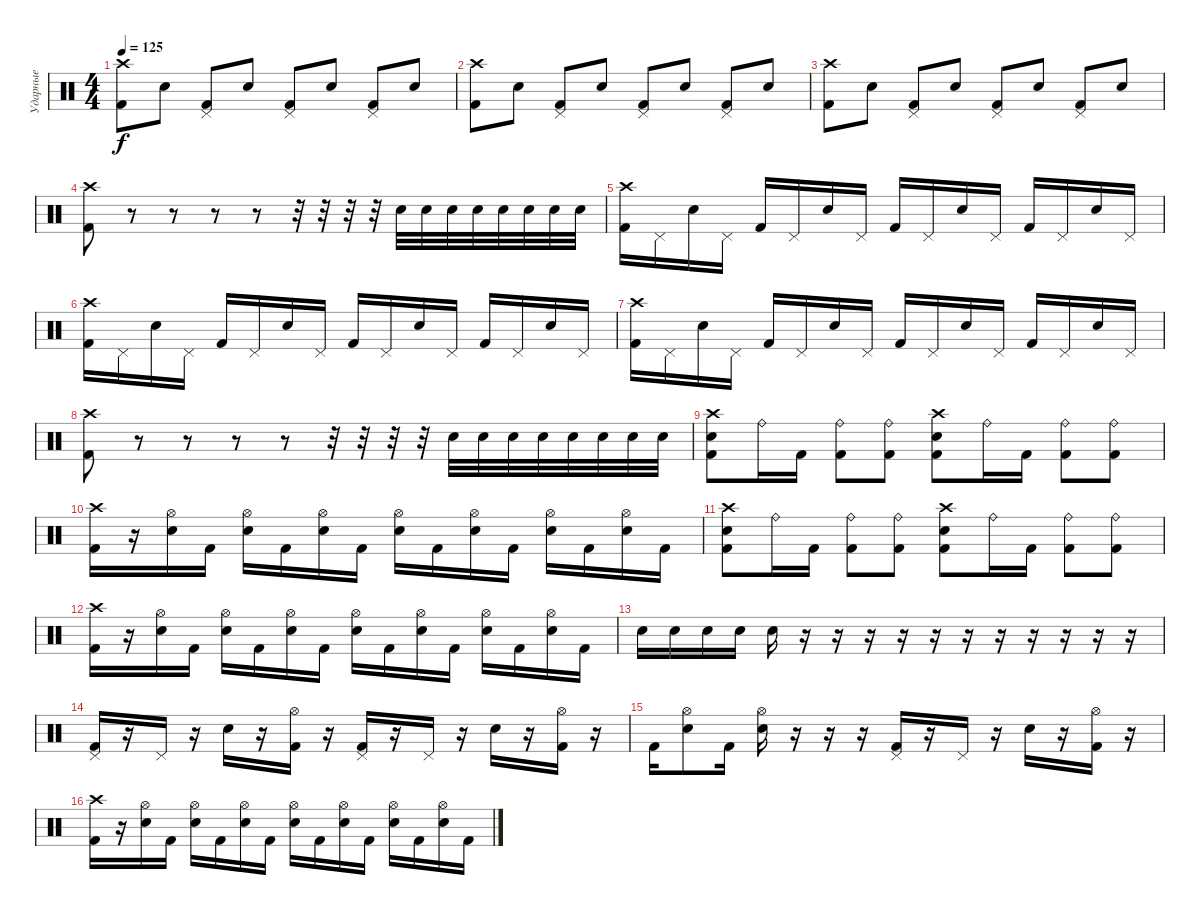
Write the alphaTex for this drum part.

\track ("Ударные" "Ударные") {instrument percussion}
\staff {score}
\articulation defaults
\ts (4 4)
\tempo 125
\clef neutral
\ks c
("Crash high (hit)" "Kick (hit) 2").8{dy f} "Electric Snare (hit)".8 ("Pedal Hi-Hat (hit)" "Kick (hit) 2").8 "Electric Snare (hit)".8 ("Pedal Hi-Hat (hit)" "Kick (hit) 2").8 "Electric Snare (hit)".8 ("Pedal Hi-Hat (hit)" "Kick (hit) 2").8 "Electric Snare (hit)".8 |
("Crash high (hit)" "Kick (hit) 2").8 "Electric Snare (hit)".8 ("Pedal Hi-Hat (hit)" "Kick (hit) 2").8 "Electric Snare (hit)".8 ("Pedal Hi-Hat (hit)" "Kick (hit) 2").8 "Electric Snare (hit)".8 ("Pedal Hi-Hat (hit)" "Kick (hit) 2").8 "Electric Snare (hit)".8 |
("Crash high (hit)" "Kick (hit) 2").8 "Electric Snare (hit)".8 ("Pedal Hi-Hat (hit)" "Kick (hit) 2").8 "Electric Snare (hit)".8 ("Pedal Hi-Hat (hit)" "Kick (hit) 2").8 "Electric Snare (hit)".8 ("Pedal Hi-Hat (hit)" "Kick (hit) 2").8 "Electric Snare (hit)".8 |
("Crash high (hit)" "Kick (hit) 2").8 r.8 r.8 r.8 r.8 r.32 r.32 r.32 r.32 "Electric Snare (hit)".32 "Electric Snare (hit)".32 "Electric Snare (hit)".32 "Electric Snare (hit)".32 "Electric Snare (hit)".32 "Electric Snare (hit)".32 "Electric Snare (hit)".32 "Electric Snare (hit)".32 |
("Crash high (hit)" "Kick (hit) 2").16 "Pedal Hi-Hat (hit)".16 "Electric Snare (hit)".16 "Pedal Hi-Hat (hit)".16 "Kick (hit) 2".16 "Pedal Hi-Hat (hit)".16 "Electric Snare (hit)".16 "Pedal Hi-Hat (hit)".16 "Kick (hit) 2".16 "Pedal Hi-Hat (hit)".16 "Electric Snare (hit)".16 "Pedal Hi-Hat (hit)".16 "Kick (hit) 2".16 "Pedal Hi-Hat (hit)".16 "Electric Snare (hit)".16 "Pedal Hi-Hat (hit)".16 |
("Crash high (hit)" "Kick (hit) 2").16 "Pedal Hi-Hat (hit)".16 "Electric Snare (hit)".16 "Pedal Hi-Hat (hit)".16 "Kick (hit) 2".16 "Pedal Hi-Hat (hit)".16 "Electric Snare (hit)".16 "Pedal Hi-Hat (hit)".16 "Kick (hit) 2".16 "Pedal Hi-Hat (hit)".16 "Electric Snare (hit)".16 "Pedal Hi-Hat (hit)".16 "Kick (hit) 2".16 "Pedal Hi-Hat (hit)".16 "Electric Snare (hit)".16 "Pedal Hi-Hat (hit)".16 |
("Crash high (hit)" "Kick (hit) 2").16 "Pedal Hi-Hat (hit)".16 "Electric Snare (hit)".16 "Pedal Hi-Hat (hit)".16 "Kick (hit) 2".16 "Pedal Hi-Hat (hit)".16 "Electric Snare (hit)".16 "Pedal Hi-Hat (hit)".16 "Kick (hit) 2".16 "Pedal Hi-Hat (hit)".16 "Electric Snare (hit)".16 "Pedal Hi-Hat (hit)".16 "Kick (hit) 2".16 "Pedal Hi-Hat (hit)".16 "Electric Snare (hit)".16 "Pedal Hi-Hat (hit)".16 |
("Crash high (hit)" "Kick (hit) 2").8 r.8 r.8 r.8 r.8 r.32 r.32 r.32 r.32 "Electric Snare (hit)".32 "Electric Snare (hit)".32 "Electric Snare (hit)".32 "Electric Snare (hit)".32 "Electric Snare (hit)".32 "Electric Snare (hit)".32 "Electric Snare (hit)".32 "Electric Snare (hit)".32 |
("Crash high (hit)" "Electric Snare (hit)" "Kick (hit) 2").8 "Ride (bell)".16 "Kick (hit) 2".16 ("Ride (bell)" "Kick (hit) 2").8 ("Ride (bell)" "Kick (hit) 2").8 ("Crash high (hit)" "Electric Snare (hit)" "Kick (hit) 2").8 "Ride (bell)".16 "Kick (hit) 2".16 ("Ride (bell)" "Kick (hit) 2").8 ("Ride (bell)" "Kick (hit) 2").8 |
("Crash high (hit)" "Kick (hit) 2").16 r.16 ("Hi-Hat (open)" "Electric Snare (hit)").16 "Kick (hit) 2".16 ("Hi-Hat (open)" "Electric Snare (hit)").16 "Kick (hit) 2".16 ("Hi-Hat (open)" "Electric Snare (hit)").16 "Kick (hit) 2".16 ("Hi-Hat (open)" "Electric Snare (hit)").16 "Kick (hit) 2".16 ("Hi-Hat (open)" "Electric Snare (hit)").16 "Kick (hit) 2".16 ("Hi-Hat (open)" "Electric Snare (hit)").16 "Kick (hit) 2".16 ("Hi-Hat (open)" "Electric Snare (hit)").16 "Kick (hit) 2".16 |
("Crash high (hit)" "Electric Snare (hit)" "Kick (hit) 2").8 "Ride (bell)".16 "Kick (hit) 2".16 ("Ride (bell)" "Kick (hit) 2").8 ("Ride (bell)" "Kick (hit) 2").8 ("Crash high (hit)" "Electric Snare (hit)" "Kick (hit) 2").8 "Ride (bell)".16 "Kick (hit) 2".16 ("Ride (bell)" "Kick (hit) 2").8 ("Ride (bell)" "Kick (hit) 2").8 |
("Crash high (hit)" "Kick (hit) 2").16 r.16 ("Hi-Hat (open)" "Electric Snare (hit)").16 "Kick (hit) 2".16 ("Hi-Hat (open)" "Electric Snare (hit)").16 "Kick (hit) 2".16 ("Hi-Hat (open)" "Electric Snare (hit)").16 "Kick (hit) 2".16 ("Hi-Hat (open)" "Electric Snare (hit)").16 "Kick (hit) 2".16 ("Hi-Hat (open)" "Electric Snare (hit)").16 "Kick (hit) 2".16 ("Hi-Hat (open)" "Electric Snare (hit)").16 "Kick (hit) 2".16 ("Hi-Hat (open)" "Electric Snare (hit)").16 "Kick (hit) 2".16 |
"Electric Snare (hit)".16 "Electric Snare (hit)".16 "Electric Snare (hit)".16 "Electric Snare (hit)".16 "Electric Snare (hit)".16 r.16 r.16 r.16 r.16 r.16 r.16 r.16 r.16 r.16 r.16 r.16 |
("Pedal Hi-Hat (hit)" "Kick (hit) 2").16 r.16 "Pedal Hi-Hat (hit)".16 r.16 "Electric Snare (hit)".16 r.16 ("Hi-Hat (open)" "Kick (hit) 2").16 r.16 ("Pedal Hi-Hat (hit)" "Kick (hit) 2").16 r.16 "Pedal Hi-Hat (hit)".16 r.16 "Electric Snare (hit)".16 r.16 ("Hi-Hat (open)" "Kick (hit) 2").16 r.16 |
"Kick (hit) 2".16 ("Hi-Hat (open)" "Electric Snare (hit)").8 "Kick (hit) 2".16 ("Hi-Hat (open)" "Electric Snare (hit)").16 r.16 r.16 r.16 ("Pedal Hi-Hat (hit)" "Kick (hit) 2").16 r.16 "Pedal Hi-Hat (hit)".16 r.16 "Electric Snare (hit)".16 r.16 ("Hi-Hat (open)" "Kick (hit) 2").16 r.16 |
("Crash high (hit)" "Kick (hit) 2").16 r.16 ("Hi-Hat (open)" "Electric Snare (hit)").16 "Kick (hit) 2".16 ("Hi-Hat (open)" "Electric Snare (hit)").16 "Kick (hit) 2".16 ("Hi-Hat (open)" "Electric Snare (hit)").16 "Kick (hit) 2".16 ("Hi-Hat (open)" "Electric Snare (hit)").16 "Kick (hit) 2".16 ("Hi-Hat (open)" "Electric Snare (hit)").16 "Kick (hit) 2".16 ("Hi-Hat (open)" "Electric Snare (hit)").16 "Kick (hit) 2".16 ("Hi-Hat (open)" "Electric Snare (hit)").16 "Kick (hit) 2".16
